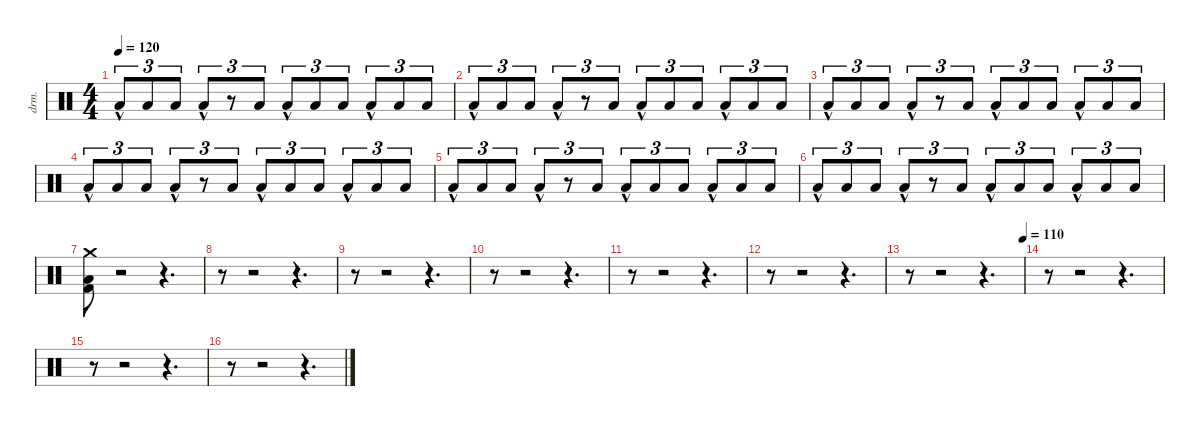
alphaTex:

\defaultSystemsLayout 4
\hideDynamics
\bracketExtendMode nobrackets
\otherSystemsTrackNameOrientation horizontal
\track ("Percussion" "drm.") {instrument percussion}
\staff {score}
\articulation defaults
\ts (4 4)
\tempo 120
\clef neutral
\ks c "Low Floor Tom (hit)"{hac}.8{tu (3 2) dy f beam Up} "Low Floor Tom (hit)".8{tu (3 2) beam Up} "Low Floor Tom (hit)".8{tu (3 2) beam Up} "Low Floor Tom (hit)"{hac}.8{tu (3 2) beam Up}
r.8{tu (3 2) beam Up} "Low Floor Tom (hit)".8{tu (3 2) beam Up} "Low Floor Tom (hit)"{hac}.8{tu (3 2) beam Up} "Low Floor Tom (hit)".8{tu (3 2) beam Up} "Low Floor Tom (hit)".8{tu (3 2) beam Up} "Low Floor Tom (hit)"{hac}.8{tu (3 2) beam Up} "Low Floor Tom (hit)".8{tu (3 2) beam Up} "Low Floor Tom (hit)".8{tu (3 2) beam Up} |
"Low Floor Tom (hit)"{hac}.8{tu (3 2) beam Up} "Low Floor Tom (hit)".8{tu (3 2) beam Up} "Low Floor Tom (hit)".8{tu (3 2) beam Up} "Low Floor Tom (hit)"{hac}.8{tu (3 2) beam Up} r.8{tu (3 2) beam Up} "Low Floor Tom (hit)".8{tu (3 2) beam Up} "Low Floor Tom (hit)"{hac}.8{tu (3 2) beam Up} "Low Floor Tom (hit)".8{tu (3 2) beam Up} "Low Floor Tom (hit)".8{tu (3 2) beam Up} "Low Floor Tom (hit)"{hac}.8{tu (3 2) beam Up} "Low Floor Tom (hit)".8{tu (3 2) beam Up} "Low Floor Tom (hit)".8{tu (3 2) beam Up} |
"Low Floor Tom (hit)"{hac}.8{tu (3 2) beam Up} "Low Floor Tom (hit)".8{tu (3 2) beam Up} "Low Floor Tom (hit)".8{tu (3 2) beam Up} "Low Floor Tom (hit)"{hac}.8{tu (3 2) beam Up} r.8{tu (3 2) beam Up} "Low Floor Tom (hit)".8{tu (3 2) beam Up} "Low Floor Tom (hit)"{hac}.8{tu (3 2) beam Up} "Low Floor Tom (hit)".8{tu (3 2) beam Up} "Low Floor Tom (hit)".8{tu (3 2) beam Up} "Low Floor Tom (hit)"{hac}.8{tu (3 2) beam Up} "Low Floor Tom (hit)".8{tu (3 2) beam Up} "Low Floor Tom (hit)".8{tu (3 2) beam Up} |
"Low Floor Tom (hit)"{hac}.8{tu (3 2) beam Up} "Low Floor Tom (hit)".8{tu (3 2) beam Up} "Low Floor Tom (hit)".8{tu (3 2) beam Up} "Low Floor Tom (hit)"{hac}.8{tu (3 2) beam Up} r.8{tu (3 2) beam Up} "Low Floor Tom (hit)".8{tu (3 2) beam Up} "Low Floor Tom (hit)"{hac}.8{tu (3 2) beam Up} "Low Floor Tom (hit)".8{tu (3 2) beam Up} "Low Floor Tom (hit)".8{tu (3 2) beam Up} "Low Floor Tom (hit)"{hac}.8{tu (3 2) beam Up} "Low Floor Tom (hit)".8{tu (3 2) beam Up} "Low Floor Tom (hit)".8{tu (3 2) beam Up} |
"Low Floor Tom (hit)"{hac}.8{tu (3 2) beam Up} "Low Floor Tom (hit)".8{tu (3 2) beam Up} "Low Floor Tom (hit)".8{tu (3 2) beam Up} "Low Floor Tom (hit)"{hac}.8{tu (3 2) beam Up} r.8{tu (3 2) beam Up} "Low Floor Tom (hit)".8{tu (3 2) beam Up} "Low Floor Tom (hit)"{hac}.8{tu (3 2) beam Up} "Low Floor Tom (hit)".8{tu (3 2) beam Up} "Low Floor Tom (hit)".8{tu (3 2) beam Up} "Low Floor Tom (hit)"{hac}.8{tu (3 2) beam Up} "Low Floor Tom (hit)".8{tu (3 2) beam Up} "Low Floor Tom (hit)".8{tu (3 2) beam Up} |
"Low Floor Tom (hit)"{hac}.8{tu (3 2) beam Up} "Low Floor Tom (hit)".8{tu (3 2) beam Up} "Low Floor Tom (hit)".8{tu (3 2) beam Up} "Low Floor Tom (hit)"{hac}.8{tu (3 2) beam Up} r.8{tu (3 2) beam Up} "Low Floor Tom (hit)".8{tu (3 2) beam Up} "Low Floor Tom (hit)"{hac}.8{tu (3 2) beam Up} "Low Floor Tom (hit)".8{tu (3 2) beam Up} "Low Floor Tom (hit)".8{tu (3 2) beam Up} "Low Floor Tom (hit)"{hac}.8{tu (3 2) beam Up} "Low Floor Tom (hit)".8{tu (3 2) beam Up} "Low Floor Tom (hit)".8{tu (3 2) beam Up} |
("Crash medium (hit)" "Low Floor Tom (hit)" "Kick (hit) 2").8{beam Down} r.2{beam Down} r.4{d beam Down} |
r.8{beam Down} r.2{beam Down} r.4{d beam Down} |
r.8{beam Down} r.2{beam Down} r.4{d beam Down} |
r.8{beam Down} r.2{beam Down} r.4{d beam Down} |
r.8{beam Down} r.2{beam Down} r.4{d beam Down} |
r.8{beam Down} r.2{beam Down} r.4{d beam Down} |
\tempo (110 1)
r.8{beam Down} r.2{beam Down} r.4{d beam Down} |
r.8{beam Down} r.2{beam Down} r.4{d beam Down} |
r.8{beam Down} r.2{beam Down} r.4{d beam Down} |
r.8{beam Down} r.2{beam Down} r.4{d beam Down}
